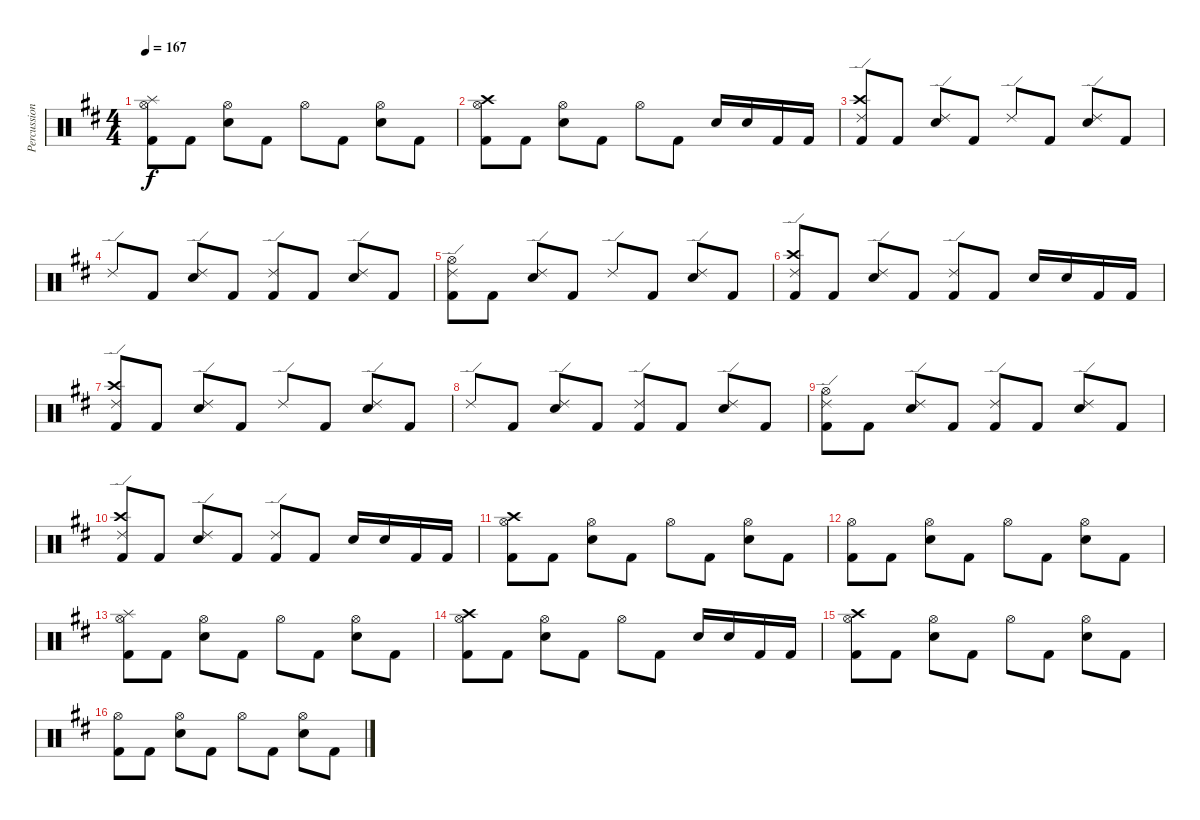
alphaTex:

\track ("Percussion" "Percussion") {instrument percussion}
\staff {score}
\articulation defaults
\ts (4 4)
\tempo 167
\clef neutral
\ks d
("Hi-Hat (open)" "Splash (hit)" "Kick (hit) 2").8{dy f} "Kick (hit) 2".8 ("Hi-Hat (open)" "Electric Snare (hit)").8 "Kick (hit) 2".8 "Hi-Hat (open)".8 "Kick (hit) 2".8 ("Hi-Hat (open)" "Electric Snare (hit)").8 "Kick (hit) 2".8 |
("Hi-Hat (open)" "Crash high (hit)" "Kick (hit) 2").8 "Kick (hit) 2".8 ("Hi-Hat (open)" "Electric Snare (hit)").8 "Kick (hit) 2".8 "Hi-Hat (open)".8 "Kick (hit) 2".8 "Electric Snare (hit)".16 "Electric Snare (hit)".16 "Kick (hit) 2".16 "Kick (hit) 2".16 |
("Ride (edge) 2" "Crash high (hit)" "Kick (hit) 2").8 "Kick (hit) 2".8 ("Ride (edge) 2" "Electric Snare (hit)").8 "Kick (hit) 2".8 "Ride (edge) 2".8 "Kick (hit) 2".8 ("Ride (edge) 2" "Electric Snare (hit)").8 "Kick (hit) 2".8 |
"Ride (edge) 2".8 "Kick (hit) 2".8 ("Ride (edge) 2" "Electric Snare (hit)").8 "Kick (hit) 2".8 ("Ride (edge) 2" "Kick (hit) 2").8 "Kick (hit) 2".8 ("Ride (edge) 2" "Electric Snare (hit)").8 "Kick (hit) 2".8 |
("Ride (edge) 2" "Hi-Hat (open)" "Kick (hit) 2").8 "Kick (hit) 2".8 ("Ride (edge) 2" "Electric Snare (hit)").8 "Kick (hit) 2".8 "Ride (edge) 2".8 "Kick (hit) 2".8 ("Ride (edge) 2" "Electric Snare (hit)").8 "Kick (hit) 2".8 |
("Ride (edge) 2" "Crash high (hit)" "Kick (hit) 2").8 "Kick (hit) 2".8 ("Ride (edge) 2" "Electric Snare (hit)").8 "Kick (hit) 2".8 ("Ride (edge) 2" "Kick (hit) 2").8 "Kick (hit) 2".8 "Electric Snare (hit)".16 "Electric Snare (hit)".16 "Kick (hit) 2".16 "Kick (hit) 2".16 |
("Ride (edge) 2" "Crash high (hit)" "Kick (hit) 2").8 "Kick (hit) 2".8 ("Ride (edge) 2" "Electric Snare (hit)").8 "Kick (hit) 2".8 "Ride (edge) 2".8 "Kick (hit) 2".8 ("Ride (edge) 2" "Electric Snare (hit)").8 "Kick (hit) 2".8 |
"Ride (edge) 2".8 "Kick (hit) 2".8 ("Ride (edge) 2" "Electric Snare (hit)").8 "Kick (hit) 2".8 ("Ride (edge) 2" "Kick (hit) 2").8 "Kick (hit) 2".8 ("Ride (edge) 2" "Electric Snare (hit)").8 "Kick (hit) 2".8 |
("Ride (edge) 2" "Hi-Hat (open)" "Kick (hit) 2").8 "Kick (hit) 2".8 ("Ride (edge) 2" "Electric Snare (hit)").8 "Kick (hit) 2".8 ("Ride (edge) 2" "Kick (hit) 2").8 "Kick (hit) 2".8 ("Ride (edge) 2" "Electric Snare (hit)").8 "Kick (hit) 2".8 |
("Ride (edge) 2" "Crash high (hit)" "Kick (hit) 2").8 "Kick (hit) 2".8 ("Ride (edge) 2" "Electric Snare (hit)").8 "Kick (hit) 2".8 ("Ride (edge) 2" "Kick (hit) 2").8 "Kick (hit) 2".8 "Electric Snare (hit)".16 "Electric Snare (hit)".16 "Kick (hit) 2".16 "Kick (hit) 2".16 |
("Hi-Hat (open)" "Crash high (hit)" "Kick (hit) 2").8 "Kick (hit) 2".8 ("Hi-Hat (open)" "Electric Snare (hit)").8 "Kick (hit) 2".8 "Hi-Hat (open)".8 "Kick (hit) 2".8 ("Hi-Hat (open)" "Electric Snare (hit)").8 "Kick (hit) 2".8 |
("Hi-Hat (open)" "Kick (hit) 2").8 "Kick (hit) 2".8 ("Hi-Hat (open)" "Electric Snare (hit)").8 "Kick (hit) 2".8 "Hi-Hat (open)".8 "Kick (hit) 2".8 ("Hi-Hat (open)" "Electric Snare (hit)").8 "Kick (hit) 2".8 |
("Hi-Hat (open)" "Splash (hit)" "Kick (hit) 2").8 "Kick (hit) 2".8 ("Hi-Hat (open)" "Electric Snare (hit)").8 "Kick (hit) 2".8 "Hi-Hat (open)".8 "Kick (hit) 2".8 ("Hi-Hat (open)" "Electric Snare (hit)").8 "Kick (hit) 2".8 |
("Hi-Hat (open)" "Crash high (hit)" "Kick (hit) 2").8 "Kick (hit) 2".8 ("Hi-Hat (open)" "Electric Snare (hit)").8 "Kick (hit) 2".8 "Hi-Hat (open)".8 "Kick (hit) 2".8 "Electric Snare (hit)".16 "Electric Snare (hit)".16 "Kick (hit) 2".16 "Kick (hit) 2".16 |
("Hi-Hat (open)" "Crash high (hit)" "Kick (hit) 2").8 "Kick (hit) 2".8 ("Hi-Hat (open)" "Electric Snare (hit)").8 "Kick (hit) 2".8 "Hi-Hat (open)".8 "Kick (hit) 2".8 ("Hi-Hat (open)" "Electric Snare (hit)").8 "Kick (hit) 2".8 |
("Hi-Hat (open)" "Kick (hit) 2").8 "Kick (hit) 2".8 ("Hi-Hat (open)" "Electric Snare (hit)").8 "Kick (hit) 2".8 "Hi-Hat (open)".8 "Kick (hit) 2".8 ("Hi-Hat (open)" "Electric Snare (hit)").8 "Kick (hit) 2".8
